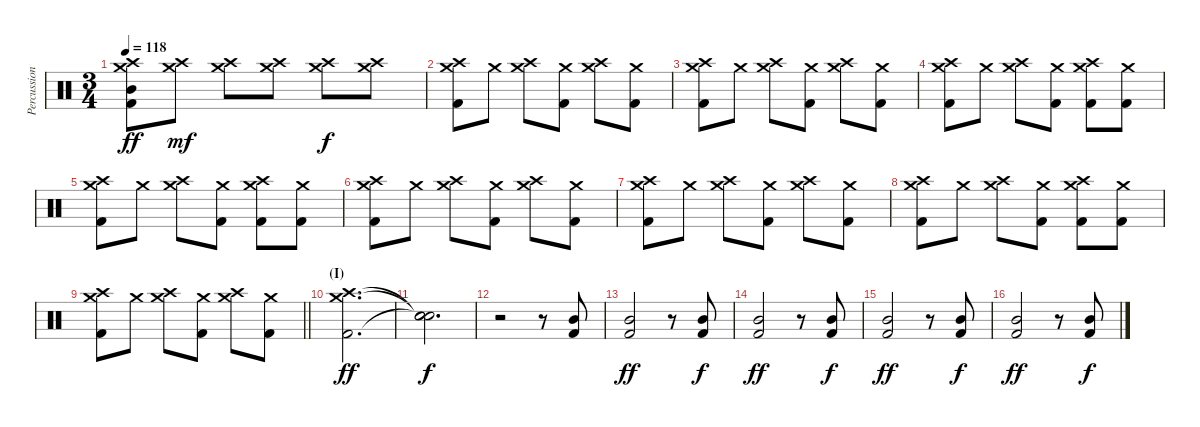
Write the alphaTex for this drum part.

\track ("Percussion" "Percussion") {instrument percussion}
\staff {score}
\articulation defaults
\ts (3 4)
\tempo 118
\clef neutral
\ks c
("Crash medium (hit)" "Crash high (hit)" "Mid Tom (hit)" "Kick (hit) 2").8{dy ff} ("Crash medium (hit)" "Crash high (hit)").8{dy mf} ("Crash medium (hit)" "Crash high (hit)").8 ("Crash medium (hit)" "Crash high (hit)").8 ("Crash medium (hit)" "Crash high (hit)").8{dy f} ("Crash medium (hit)" "Crash high (hit)").8 |
("Crash medium (hit)" "Crash high (hit)" "Kick (hit) 2").8{volume 10} "Crash medium (hit)".8 ("Crash medium (hit)" "Crash high (hit)").8 ("Crash medium (hit)" "Kick (hit) 2").8 ("Crash medium (hit)" "Crash high (hit)").8 ("Crash medium (hit)" "Kick (hit) 2").8 |
("Crash medium (hit)" "Crash high (hit)" "Kick (hit) 2").8 "Crash medium (hit)".8 ("Crash medium (hit)" "Crash high (hit)").8 ("Crash medium (hit)" "Kick (hit) 2").8 ("Crash medium (hit)" "Crash high (hit)").8 ("Crash medium (hit)" "Kick (hit) 2").8 |
("Crash medium (hit)" "Crash high (hit)" "Kick (hit) 2").8 "Crash medium (hit)".8 ("Crash medium (hit)" "Crash high (hit)").8 ("Crash medium (hit)" "Kick (hit) 2").8 ("Crash medium (hit)" "Crash high (hit)" "Kick (hit) 2").8 ("Crash medium (hit)" "Kick (hit) 2").8 |
("Crash medium (hit)" "Crash high (hit)" "Kick (hit) 2").8 "Crash medium (hit)".8 ("Crash medium (hit)" "Crash high (hit)").8 ("Crash medium (hit)" "Kick (hit) 2").8 ("Crash medium (hit)" "Crash high (hit)" "Kick (hit) 2").8 ("Crash medium (hit)" "Kick (hit) 2").8 |
("Crash medium (hit)" "Crash high (hit)" "Kick (hit) 2").8 "Crash medium (hit)".8 ("Crash medium (hit)" "Crash high (hit)").8 ("Crash medium (hit)" "Kick (hit) 2").8 ("Crash medium (hit)" "Crash high (hit)").8 ("Crash medium (hit)" "Kick (hit) 2").8 |
("Crash medium (hit)" "Crash high (hit)" "Kick (hit) 2").8 "Crash medium (hit)".8 ("Crash medium (hit)" "Crash high (hit)").8 ("Crash medium (hit)" "Kick (hit) 2").8 ("Crash medium (hit)" "Crash high (hit)").8 ("Crash medium (hit)" "Kick (hit) 2").8 |
("Crash medium (hit)" "Crash high (hit)" "Kick (hit) 2").8 "Crash medium (hit)".8 ("Crash medium (hit)" "Crash high (hit)").8 ("Crash medium (hit)" "Kick (hit) 2").8 ("Crash medium (hit)" "Crash high (hit)" "Kick (hit) 2").8 ("Crash medium (hit)" "Kick (hit) 2").8 |
\barLineRight lightlight
("Crash medium (hit)" "Crash high (hit)" "Kick (hit) 2").8 "Crash medium (hit)".8 ("Crash medium (hit)" "Crash high (hit)").8 ("Crash medium (hit)" "Kick (hit) 2").8 ("Crash medium (hit)" "Crash high (hit)").8 ("Crash medium (hit)" "Kick (hit) 2").8 |
\section ("" "(I)")
("Crash medium (hit)" "Crash high (hit)" "Kick (hit) 2").2{d dy ff} |
("Snare (hit)"{t} "Snare (hit)"{t} "Snare (hit)"{t}).2{d dy f} |
r.2 r.8 ("Mid Tom (hit)" "Kick (hit) 2").8{volume 4} |
("Mid Tom (hit)" "Kick (hit) 2").2{dy ff} r.8 ("Mid Tom (hit)" "Kick (hit) 2").8{dy f} |
("Mid Tom (hit)" "Kick (hit) 2").2{dy ff} r.8 ("Mid Tom (hit)" "Kick (hit) 2").8{dy f} |
("Mid Tom (hit)" "Kick (hit) 2").2{dy ff} r.8 ("Mid Tom (hit)" "Kick (hit) 2").8{dy f} |
("Mid Tom (hit)" "Kick (hit) 2").2{dy ff} r.8 ("Mid Tom (hit)" "Kick (hit) 2").8{dy f}
